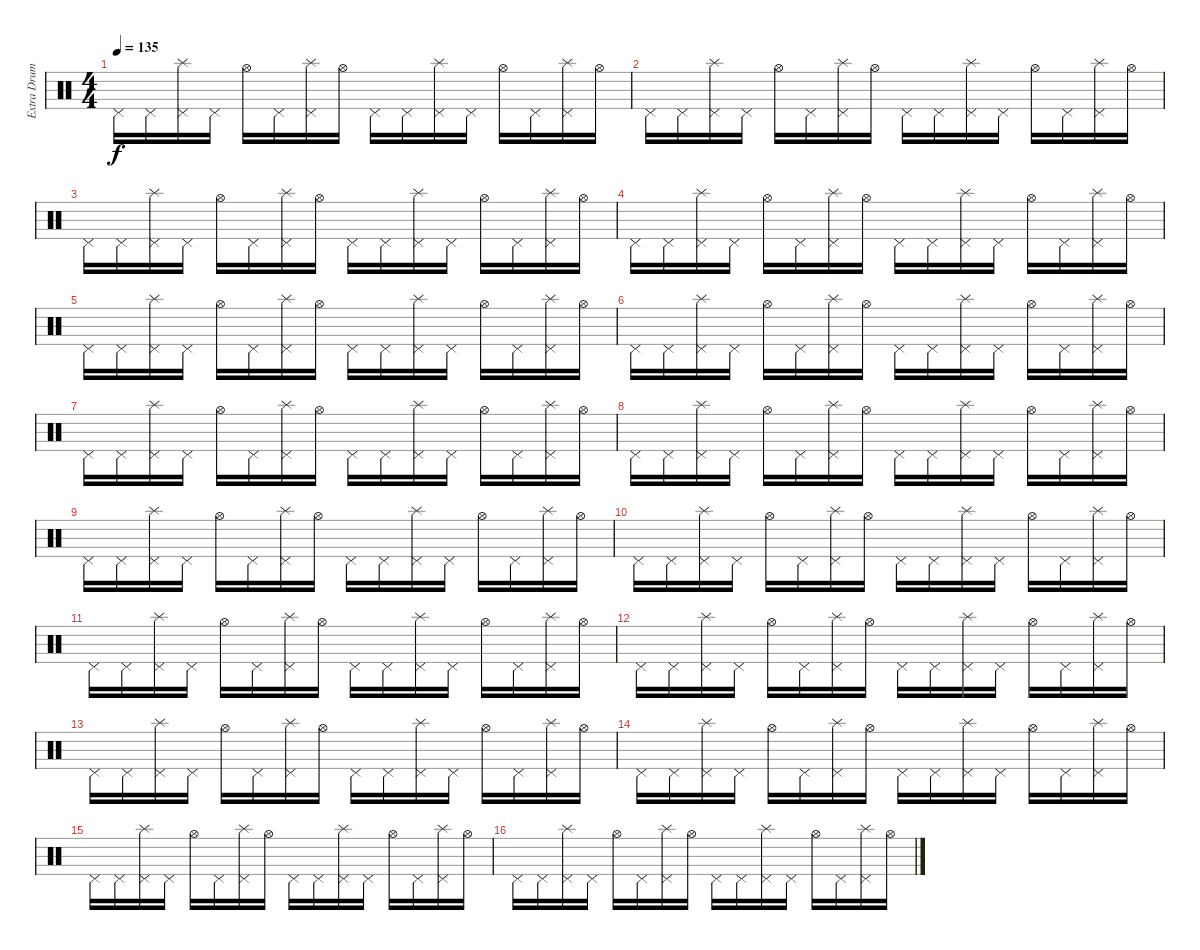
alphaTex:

\track ("Extra Drums" "Extra Drum") {instrument percussion}
\staff {score}
\articulation defaults
\ts (4 4)
\tempo 135
\clef neutral
\ks c "Pedal Hi-Hat (hit)".16{dy f} "Pedal Hi-Hat (hit)".16
("Pedal Hi-Hat (hit)" "Splash (hit)").16 "Pedal Hi-Hat (hit)".16 "Hi-Hat (open)".16 "Pedal Hi-Hat (hit)".16 ("Pedal Hi-Hat (hit)" "Splash (hit)").16 "Hi-Hat (open)".16 "Pedal Hi-Hat (hit)".16 "Pedal Hi-Hat (hit)".16 ("Pedal Hi-Hat (hit)" "Splash (hit)").16 "Pedal Hi-Hat (hit)".16 "Hi-Hat (open)".16 "Pedal Hi-Hat (hit)".16 ("Pedal Hi-Hat (hit)" "Splash (hit)").16 "Hi-Hat (open)".16 |
"Pedal Hi-Hat (hit)".16 "Pedal Hi-Hat (hit)".16 ("Pedal Hi-Hat (hit)" "Splash (hit)").16 "Pedal Hi-Hat (hit)".16 "Hi-Hat (open)".16 "Pedal Hi-Hat (hit)".16 ("Pedal Hi-Hat (hit)" "Splash (hit)").16 "Hi-Hat (open)".16 "Pedal Hi-Hat (hit)".16 "Pedal Hi-Hat (hit)".16 ("Pedal Hi-Hat (hit)" "Splash (hit)").16 "Pedal Hi-Hat (hit)".16 "Hi-Hat (open)".16 "Pedal Hi-Hat (hit)".16 ("Pedal Hi-Hat (hit)" "Splash (hit)").16 "Hi-Hat (open)".16 |
"Pedal Hi-Hat (hit)".16 "Pedal Hi-Hat (hit)".16 ("Pedal Hi-Hat (hit)" "Splash (hit)").16 "Pedal Hi-Hat (hit)".16 "Hi-Hat (open)".16 "Pedal Hi-Hat (hit)".16 ("Pedal Hi-Hat (hit)" "Splash (hit)").16 "Hi-Hat (open)".16 "Pedal Hi-Hat (hit)".16 "Pedal Hi-Hat (hit)".16 ("Pedal Hi-Hat (hit)" "Splash (hit)").16 "Pedal Hi-Hat (hit)".16 "Hi-Hat (open)".16 "Pedal Hi-Hat (hit)".16 ("Pedal Hi-Hat (hit)" "Splash (hit)").16 "Hi-Hat (open)".16 |
"Pedal Hi-Hat (hit)".16 "Pedal Hi-Hat (hit)".16 ("Pedal Hi-Hat (hit)" "Splash (hit)").16 "Pedal Hi-Hat (hit)".16 "Hi-Hat (open)".16 "Pedal Hi-Hat (hit)".16 ("Pedal Hi-Hat (hit)" "Splash (hit)").16 "Hi-Hat (open)".16 "Pedal Hi-Hat (hit)".16 "Pedal Hi-Hat (hit)".16 ("Pedal Hi-Hat (hit)" "Splash (hit)").16 "Pedal Hi-Hat (hit)".16 "Hi-Hat (open)".16 "Pedal Hi-Hat (hit)".16 ("Pedal Hi-Hat (hit)" "Splash (hit)").16 "Hi-Hat (open)".16 |
"Pedal Hi-Hat (hit)".16 "Pedal Hi-Hat (hit)".16 ("Pedal Hi-Hat (hit)" "Splash (hit)").16 "Pedal Hi-Hat (hit)".16 "Hi-Hat (open)".16 "Pedal Hi-Hat (hit)".16 ("Pedal Hi-Hat (hit)" "Splash (hit)").16 "Hi-Hat (open)".16 "Pedal Hi-Hat (hit)".16 "Pedal Hi-Hat (hit)".16 ("Pedal Hi-Hat (hit)" "Splash (hit)").16 "Pedal Hi-Hat (hit)".16 "Hi-Hat (open)".16 "Pedal Hi-Hat (hit)".16 ("Pedal Hi-Hat (hit)" "Splash (hit)").16 "Hi-Hat (open)".16 |
"Pedal Hi-Hat (hit)".16 "Pedal Hi-Hat (hit)".16 ("Pedal Hi-Hat (hit)" "Splash (hit)").16 "Pedal Hi-Hat (hit)".16 "Hi-Hat (open)".16 "Pedal Hi-Hat (hit)".16 ("Pedal Hi-Hat (hit)" "Splash (hit)").16 "Hi-Hat (open)".16 "Pedal Hi-Hat (hit)".16 "Pedal Hi-Hat (hit)".16 ("Pedal Hi-Hat (hit)" "Splash (hit)").16 "Pedal Hi-Hat (hit)".16 "Hi-Hat (open)".16 "Pedal Hi-Hat (hit)".16 ("Pedal Hi-Hat (hit)" "Splash (hit)").16 "Hi-Hat (open)".16 |
"Pedal Hi-Hat (hit)".16 "Pedal Hi-Hat (hit)".16 ("Pedal Hi-Hat (hit)" "Splash (hit)").16 "Pedal Hi-Hat (hit)".16 "Hi-Hat (open)".16 "Pedal Hi-Hat (hit)".16 ("Pedal Hi-Hat (hit)" "Splash (hit)").16 "Hi-Hat (open)".16 "Pedal Hi-Hat (hit)".16 "Pedal Hi-Hat (hit)".16 ("Pedal Hi-Hat (hit)" "Splash (hit)").16 "Pedal Hi-Hat (hit)".16 "Hi-Hat (open)".16 "Pedal Hi-Hat (hit)".16 ("Pedal Hi-Hat (hit)" "Splash (hit)").16 "Hi-Hat (open)".16 |
"Pedal Hi-Hat (hit)".16 "Pedal Hi-Hat (hit)".16 ("Pedal Hi-Hat (hit)" "Splash (hit)").16 "Pedal Hi-Hat (hit)".16 "Hi-Hat (open)".16 "Pedal Hi-Hat (hit)".16 ("Pedal Hi-Hat (hit)" "Splash (hit)").16 "Hi-Hat (open)".16 "Pedal Hi-Hat (hit)".16 "Pedal Hi-Hat (hit)".16 ("Pedal Hi-Hat (hit)" "Splash (hit)").16 "Pedal Hi-Hat (hit)".16 "Hi-Hat (open)".16 "Pedal Hi-Hat (hit)".16 ("Pedal Hi-Hat (hit)" "Splash (hit)").16 "Hi-Hat (open)".16 |
"Pedal Hi-Hat (hit)".16 "Pedal Hi-Hat (hit)".16 ("Pedal Hi-Hat (hit)" "Splash (hit)").16 "Pedal Hi-Hat (hit)".16 "Hi-Hat (open)".16 "Pedal Hi-Hat (hit)".16 ("Pedal Hi-Hat (hit)" "Splash (hit)").16 "Hi-Hat (open)".16 "Pedal Hi-Hat (hit)".16 "Pedal Hi-Hat (hit)".16 ("Pedal Hi-Hat (hit)" "Splash (hit)").16 "Pedal Hi-Hat (hit)".16 "Hi-Hat (open)".16 "Pedal Hi-Hat (hit)".16 ("Pedal Hi-Hat (hit)" "Splash (hit)").16 "Hi-Hat (open)".16 |
"Pedal Hi-Hat (hit)".16 "Pedal Hi-Hat (hit)".16 ("Pedal Hi-Hat (hit)" "Splash (hit)").16 "Pedal Hi-Hat (hit)".16 "Hi-Hat (open)".16 "Pedal Hi-Hat (hit)".16 ("Pedal Hi-Hat (hit)" "Splash (hit)").16 "Hi-Hat (open)".16 "Pedal Hi-Hat (hit)".16 "Pedal Hi-Hat (hit)".16 ("Pedal Hi-Hat (hit)" "Splash (hit)").16 "Pedal Hi-Hat (hit)".16 "Hi-Hat (open)".16 "Pedal Hi-Hat (hit)".16 ("Pedal Hi-Hat (hit)" "Splash (hit)").16 "Hi-Hat (open)".16 |
"Pedal Hi-Hat (hit)".16 "Pedal Hi-Hat (hit)".16 ("Pedal Hi-Hat (hit)" "Splash (hit)").16 "Pedal Hi-Hat (hit)".16 "Hi-Hat (open)".16 "Pedal Hi-Hat (hit)".16 ("Pedal Hi-Hat (hit)" "Splash (hit)").16 "Hi-Hat (open)".16 "Pedal Hi-Hat (hit)".16 "Pedal Hi-Hat (hit)".16 ("Pedal Hi-Hat (hit)" "Splash (hit)").16 "Pedal Hi-Hat (hit)".16 "Hi-Hat (open)".16 "Pedal Hi-Hat (hit)".16 ("Pedal Hi-Hat (hit)" "Splash (hit)").16 "Hi-Hat (open)".16 |
"Pedal Hi-Hat (hit)".16 "Pedal Hi-Hat (hit)".16 ("Pedal Hi-Hat (hit)" "Splash (hit)").16 "Pedal Hi-Hat (hit)".16 "Hi-Hat (open)".16 "Pedal Hi-Hat (hit)".16 ("Pedal Hi-Hat (hit)" "Splash (hit)").16 "Hi-Hat (open)".16 "Pedal Hi-Hat (hit)".16 "Pedal Hi-Hat (hit)".16 ("Pedal Hi-Hat (hit)" "Splash (hit)").16 "Pedal Hi-Hat (hit)".16 "Hi-Hat (open)".16 "Pedal Hi-Hat (hit)".16 ("Pedal Hi-Hat (hit)" "Splash (hit)").16 "Hi-Hat (open)".16 |
"Pedal Hi-Hat (hit)".16 "Pedal Hi-Hat (hit)".16 ("Pedal Hi-Hat (hit)" "Splash (hit)").16 "Pedal Hi-Hat (hit)".16 "Hi-Hat (open)".16 "Pedal Hi-Hat (hit)".16 ("Pedal Hi-Hat (hit)" "Splash (hit)").16 "Hi-Hat (open)".16 "Pedal Hi-Hat (hit)".16 "Pedal Hi-Hat (hit)".16 ("Pedal Hi-Hat (hit)" "Splash (hit)").16 "Pedal Hi-Hat (hit)".16 "Hi-Hat (open)".16 "Pedal Hi-Hat (hit)".16 ("Pedal Hi-Hat (hit)" "Splash (hit)").16 "Hi-Hat (open)".16 |
"Pedal Hi-Hat (hit)".16 "Pedal Hi-Hat (hit)".16 ("Pedal Hi-Hat (hit)" "Splash (hit)").16 "Pedal Hi-Hat (hit)".16 "Hi-Hat (open)".16 "Pedal Hi-Hat (hit)".16 ("Pedal Hi-Hat (hit)" "Splash (hit)").16 "Hi-Hat (open)".16 "Pedal Hi-Hat (hit)".16 "Pedal Hi-Hat (hit)".16 ("Pedal Hi-Hat (hit)" "Splash (hit)").16 "Pedal Hi-Hat (hit)".16 "Hi-Hat (open)".16 "Pedal Hi-Hat (hit)".16 ("Pedal Hi-Hat (hit)" "Splash (hit)").16 "Hi-Hat (open)".16 |
"Pedal Hi-Hat (hit)".16 "Pedal Hi-Hat (hit)".16 ("Pedal Hi-Hat (hit)" "Splash (hit)").16 "Pedal Hi-Hat (hit)".16 "Hi-Hat (open)".16 "Pedal Hi-Hat (hit)".16 ("Pedal Hi-Hat (hit)" "Splash (hit)").16 "Hi-Hat (open)".16 "Pedal Hi-Hat (hit)".16 "Pedal Hi-Hat (hit)".16 ("Pedal Hi-Hat (hit)" "Splash (hit)").16 "Pedal Hi-Hat (hit)".16 "Hi-Hat (open)".16 "Pedal Hi-Hat (hit)".16 ("Pedal Hi-Hat (hit)" "Splash (hit)").16 "Hi-Hat (open)".16 |
"Pedal Hi-Hat (hit)".16 "Pedal Hi-Hat (hit)".16 ("Pedal Hi-Hat (hit)" "Splash (hit)").16 "Pedal Hi-Hat (hit)".16 "Hi-Hat (open)".16 "Pedal Hi-Hat (hit)".16 ("Pedal Hi-Hat (hit)" "Splash (hit)").16 "Hi-Hat (open)".16 "Pedal Hi-Hat (hit)".16 "Pedal Hi-Hat (hit)".16 ("Pedal Hi-Hat (hit)" "Splash (hit)").16 "Pedal Hi-Hat (hit)".16 "Hi-Hat (open)".16 "Pedal Hi-Hat (hit)".16 ("Pedal Hi-Hat (hit)" "Splash (hit)").16 "Hi-Hat (open)".16
